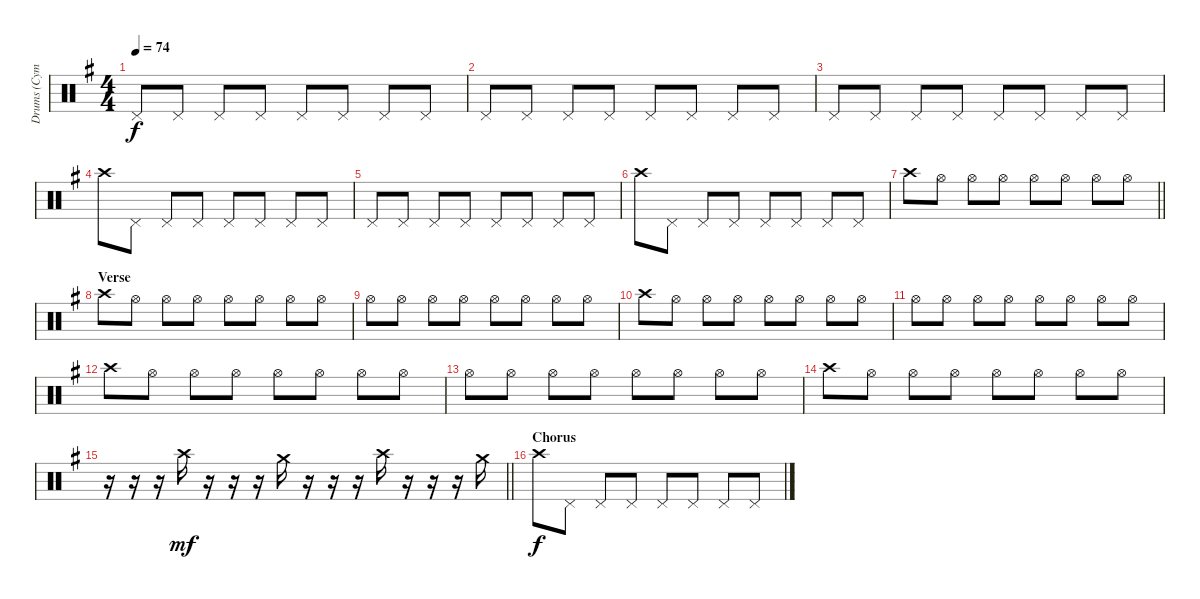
\track ("Drums (Cymbals)" "Drums (Cym") {instrument percussion}
\staff {score}
\articulation defaults
\ts (4 4)
\tempo 74
\clef neutral
\ks g "Pedal Hi-Hat (hit)".8{dy f} "Pedal Hi-Hat (hit)".8 "Pedal Hi-Hat (hit)".8 "Pedal Hi-Hat (hit)".8 "Pedal Hi-Hat (hit)".8 "Pedal Hi-Hat (hit)".8 "Pedal Hi-Hat (hit)".8 "Pedal Hi-Hat (hit)".8
|
"Pedal Hi-Hat (hit)".8 "Pedal Hi-Hat (hit)".8 "Pedal Hi-Hat (hit)".8 "Pedal Hi-Hat (hit)".8 "Pedal Hi-Hat (hit)".8 "Pedal Hi-Hat (hit)".8 "Pedal Hi-Hat (hit)".8 "Pedal Hi-Hat (hit)".8 |
"Pedal Hi-Hat (hit)".8 "Pedal Hi-Hat (hit)".8 "Pedal Hi-Hat (hit)".8 "Pedal Hi-Hat (hit)".8 "Pedal Hi-Hat (hit)".8 "Pedal Hi-Hat (hit)".8 "Pedal Hi-Hat (hit)".8 "Pedal Hi-Hat (hit)".8 |
"Crash high (hit)".8 "Pedal Hi-Hat (hit)".8 "Pedal Hi-Hat (hit)".8 "Pedal Hi-Hat (hit)".8 "Pedal Hi-Hat (hit)".8 "Pedal Hi-Hat (hit)".8 "Pedal Hi-Hat (hit)".8 "Pedal Hi-Hat (hit)".8 |
"Pedal Hi-Hat (hit)".8 "Pedal Hi-Hat (hit)".8 "Pedal Hi-Hat (hit)".8 "Pedal Hi-Hat (hit)".8 "Pedal Hi-Hat (hit)".8 "Pedal Hi-Hat (hit)".8 "Pedal Hi-Hat (hit)".8 "Pedal Hi-Hat (hit)".8 |
"Crash high (hit)".8 "Pedal Hi-Hat (hit)".8 "Pedal Hi-Hat (hit)".8 "Pedal Hi-Hat (hit)".8 "Pedal Hi-Hat (hit)".8 "Pedal Hi-Hat (hit)".8 "Pedal Hi-Hat (hit)".8 "Pedal Hi-Hat (hit)".8 |
\barLineRight lightlight "Crash high (hit)".8 "Hi-Hat (open)".8 "Hi-Hat (open)".8 "Hi-Hat (open)".8 "Hi-Hat (open)".8 "Hi-Hat (open)".8 "Hi-Hat (open)".8 "Hi-Hat (open)".8
|
\section ("" "Verse")
"Crash high (hit)".8 "Hi-Hat (open)".8 "Hi-Hat (open)".8 "Hi-Hat (open)".8 "Hi-Hat (open)".8 "Hi-Hat (open)".8 "Hi-Hat (open)".8 "Hi-Hat (open)".8 |
"Hi-Hat (open)".8 "Hi-Hat (open)".8 "Hi-Hat (open)".8 "Hi-Hat (open)".8 "Hi-Hat (open)".8 "Hi-Hat (open)".8 "Hi-Hat (open)".8 "Hi-Hat (open)".8 |
"Crash high (hit)".8 "Hi-Hat (open)".8 "Hi-Hat (open)".8 "Hi-Hat (open)".8 "Hi-Hat (open)".8 "Hi-Hat (open)".8 "Hi-Hat (open)".8 "Hi-Hat (open)".8 |
"Hi-Hat (open)".8 "Hi-Hat (open)".8 "Hi-Hat (open)".8 "Hi-Hat (open)".8 "Hi-Hat (open)".8 "Hi-Hat (open)".8 "Hi-Hat (open)".8 "Hi-Hat (open)".8 |
"Crash high (hit)".8 "Hi-Hat (open)".8 "Hi-Hat (open)".8 "Hi-Hat (open)".8 "Hi-Hat (open)".8 "Hi-Hat (open)".8 "Hi-Hat (open)".8 "Hi-Hat (open)".8 |
"Hi-Hat (open)".8 "Hi-Hat (open)".8 "Hi-Hat (open)".8 "Hi-Hat (open)".8 "Hi-Hat (open)".8 "Hi-Hat (open)".8 "Hi-Hat (open)".8 "Hi-Hat (open)".8 |
"Crash high (hit)".8 "Hi-Hat (open)".8 "Hi-Hat (open)".8 "Hi-Hat (open)".8 "Hi-Hat (open)".8 "Hi-Hat (open)".8 "Hi-Hat (open)".8 "Hi-Hat (open)".8 |
\barLineRight lightlight
r.16 r.16 r.16 "Crash high (hit)".16{dy mf} r.16 r.16 r.16 "Crash medium (hit)".16 r.16 r.16 r.16 "Crash high (hit)".16 r.16 r.16 r.16 "Crash medium (hit)".16 |
\section ("" "Chorus")
"Crash high (hit)".8{dy f} "Pedal Hi-Hat (hit)".8 "Pedal Hi-Hat (hit)".8 "Pedal Hi-Hat (hit)".8 "Pedal Hi-Hat (hit)".8 "Pedal Hi-Hat (hit)".8 "Pedal Hi-Hat (hit)".8 "Pedal Hi-Hat (hit)".8
